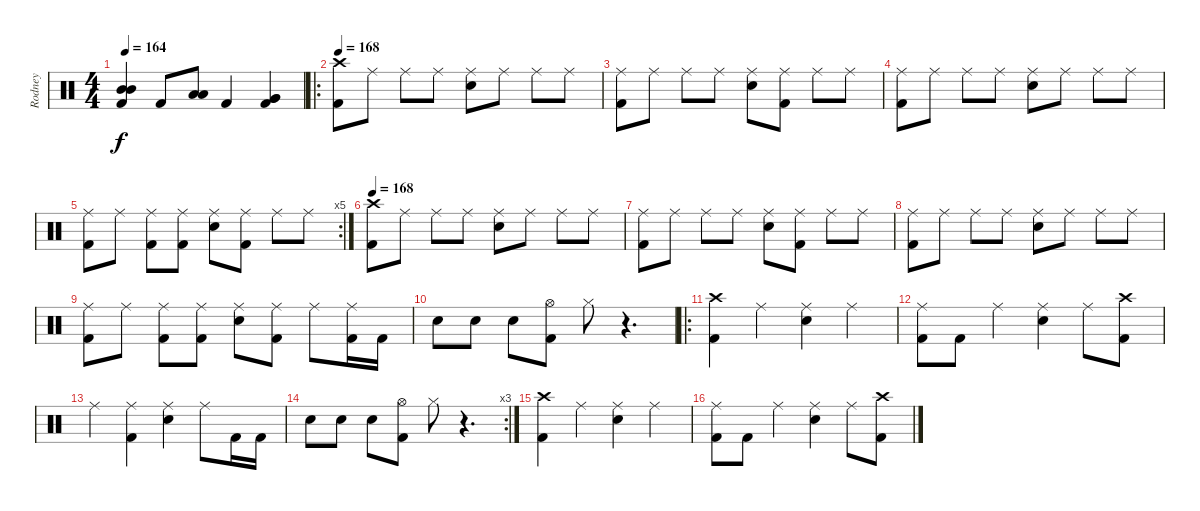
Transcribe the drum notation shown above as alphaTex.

\track ("Rodney" "Rodney") {instrument percussion}
\staff {score}
\articulation defaults
\ts (4 4)
\tempo 164
\clef neutral
\ks c
("Mid Tom (hit)" "Mid Tom (hit)" "Kick (hit) 2").4{dy f} "Kick (hit) 2".8 ("Low Tom (hit)" "Low Tom (hit)").8 "Kick (hit) 2".4 ("Very Low Tom (hit)" "Very Low Tom (hit)" "Kick (hit) 2").4 |
\ro
\tempo 168
("Crash high (hit)" "Kick (hit) 2").8 "Ride (middle)".8 "Ride (middle)".8 "Ride (middle)".8 ("Ride (middle)" "Snare (hit) 2").8 "Ride (middle)".8 "Ride (middle)".8 "Ride (middle)".8 |
("Ride (middle)" "Kick (hit) 2").8 "Ride (middle)".8 "Ride (middle)".8 "Ride (middle)".8 ("Ride (middle)" "Snare (hit) 2").8 ("Ride (middle)" "Kick (hit) 2").8 "Ride (middle)".8 "Ride (middle)".8 |
("Ride (middle)" "Kick (hit) 2").8 "Ride (middle)".8 "Ride (middle)".8 "Ride (middle)".8 ("Ride (middle)" "Snare (hit) 2").8 "Ride (middle)".8 "Ride (middle)".8 "Ride (middle)".8 |
\rc 5
("Ride (middle)" "Kick (hit) 2").8 "Ride (middle)".8 ("Ride (middle)" "Kick (hit) 2").8 ("Ride (middle)" "Kick (hit) 2").8 ("Ride (middle)" "Snare (hit) 2").8 ("Ride (middle)" "Kick (hit) 2").8 "Ride (middle)".8 "Ride (middle)".8 |
\tempo 168
("Crash high (hit)" "Kick (hit) 2").8 "Ride (middle)".8 "Ride (middle)".8 "Ride (middle)".8 ("Ride (middle)" "Snare (hit) 2").8 "Ride (middle)".8 "Ride (middle)".8 "Ride (middle)".8 |
("Ride (middle)" "Kick (hit) 2").8 "Ride (middle)".8 "Ride (middle)".8 "Ride (middle)".8 ("Ride (middle)" "Snare (hit) 2").8 ("Ride (middle)" "Kick (hit) 2").8 "Ride (middle)".8 "Ride (middle)".8 |
("Ride (middle)" "Kick (hit) 2").8 "Ride (middle)".8 "Ride (middle)".8 "Ride (middle)".8 ("Ride (middle)" "Snare (hit) 2").8 "Ride (middle)".8 "Ride (middle)".8 "Ride (middle)".8 |
("Ride (middle)" "Kick (hit) 2").8 "Ride (middle)".8 ("Ride (middle)" "Kick (hit) 2").8 ("Ride (middle)" "Kick (hit) 2").8 ("Ride (middle)" "Snare (hit) 2").8 ("Ride (middle)" "Kick (hit) 2").8 "Ride (middle)".8 ("Ride (middle)" "Kick (hit) 2").16 "Kick (hit) 2".16 |
"Snare (hit) 2".8 "Snare (hit) 2".8 "Snare (hit) 2".8 ("Hi-Hat (open)" "Kick (hit) 2").8 "Hi-Hat (closed)".8 r.4{d} |
\ro
("Crash high (hit)" "Kick (hit) 2").4 "Ride (middle)".4 ("Ride (middle)" "Snare (hit) 2").4 "Ride (middle)".4 |
("Ride (middle)" "Kick (hit) 2").8 "Kick (hit) 2".8 "Ride (middle)".4 ("Ride (middle)" "Snare (hit) 2").4 "Ride (middle)".8 ("Crash high (hit)" "Kick (hit) 2").8 |
"Ride (middle)".4 ("Ride (middle)" "Kick (hit) 2").4 ("Ride (middle)" "Snare (hit) 2").4 "Ride (middle)".8 "Kick (hit) 2".16 "Kick (hit) 2".16 |
\rc 3 "Snare (hit) 2".8 "Snare (hit) 2".8 "Snare (hit) 2".8
("Hi-Hat (open)" "Kick (hit) 2").8 "Hi-Hat (closed)".8 r.4{d} |
("Crash high (hit)" "Kick (hit) 2").4 "Ride (middle)".4 ("Ride (middle)" "Snare (hit) 2").4 "Ride (middle)".4 |
("Ride (middle)" "Kick (hit) 2").8 "Kick (hit) 2".8 "Ride (middle)".4 ("Ride (middle)" "Snare (hit) 2").4 "Ride (middle)".8 ("Crash high (hit)" "Kick (hit) 2").8
